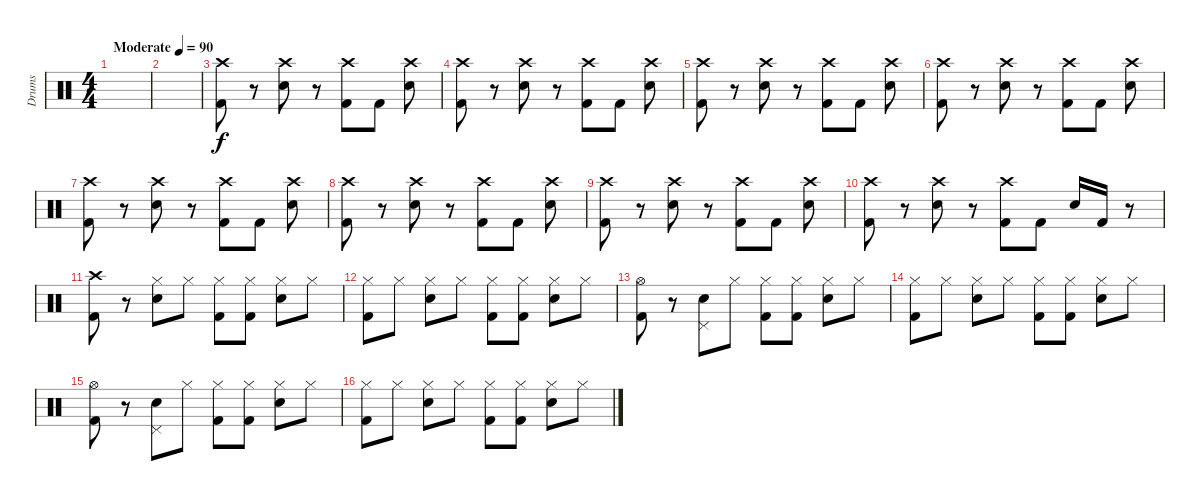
\track ("Drums" "Drums") {instrument percussion}
\staff {score}
\articulation defaults
\ts (4 4)
\tempo (90 "Moderate")
\clef neutral
\ks c
|
|
("Crash high (hit)" "Kick (hit) 2").8 r.8 ("Crash high (hit)" "Electric Snare (hit)").8 r.8 ("Crash high (hit)" "Kick (hit) 2").8 "Kick (hit) 2".8 ("Crash high (hit)" "Electric Snare (hit)").8 |
("Crash high (hit)" "Kick (hit) 2").8 r.8 ("Crash high (hit)" "Electric Snare (hit)").8 r.8 ("Crash high (hit)" "Kick (hit) 2").8 "Kick (hit) 2".8 ("Crash high (hit)" "Electric Snare (hit)").8 |
("Crash high (hit)" "Kick (hit) 2").8 r.8 ("Crash high (hit)" "Electric Snare (hit)").8 r.8 ("Crash high (hit)" "Kick (hit) 2").8 "Kick (hit) 2".8 ("Crash high (hit)" "Electric Snare (hit)").8 |
("Crash high (hit)" "Kick (hit) 2").8 r.8 ("Crash high (hit)" "Electric Snare (hit)").8 r.8 ("Crash high (hit)" "Kick (hit) 2").8 "Kick (hit) 2".8 ("Crash high (hit)" "Electric Snare (hit)").8 |
("Crash high (hit)" "Kick (hit) 2").8 r.8 ("Crash high (hit)" "Electric Snare (hit)").8 r.8 ("Crash high (hit)" "Kick (hit) 2").8 "Kick (hit) 2".8 ("Crash high (hit)" "Electric Snare (hit)").8 |
("Crash high (hit)" "Kick (hit) 2").8 r.8 ("Crash high (hit)" "Electric Snare (hit)").8 r.8 ("Crash high (hit)" "Kick (hit) 2").8 "Kick (hit) 2".8 ("Crash high (hit)" "Electric Snare (hit)").8 |
("Crash high (hit)" "Kick (hit) 2").8 r.8 ("Crash high (hit)" "Electric Snare (hit)").8 r.8 ("Crash high (hit)" "Kick (hit) 2").8 "Kick (hit) 2".8 ("Crash high (hit)" "Electric Snare (hit)").8 |
("Crash high (hit)" "Kick (hit) 2").8 r.8 ("Crash high (hit)" "Electric Snare (hit)").8 r.8 ("Crash high (hit)" "Kick (hit) 2").8 "Kick (hit) 2".8 "Electric Snare (hit)".16 "Kick (hit) 2".16 r.8 |
("Crash high (hit)" "Kick (hit) 2").8 r.8 ("Hi-Hat (closed)" "Electric Snare (hit)").8 "Hi-Hat (closed)".8 ("Hi-Hat (closed)" "Kick (hit) 2").8 ("Hi-Hat (closed)" "Kick (hit) 2").8 ("Hi-Hat (closed)" "Electric Snare (hit)").8 "Hi-Hat (closed)".8 |
("Hi-Hat (closed)" "Kick (hit) 2").8 "Hi-Hat (closed)".8 ("Hi-Hat (closed)" "Electric Snare (hit)").8 "Hi-Hat (closed)".8 ("Hi-Hat (closed)" "Kick (hit) 2").8 ("Hi-Hat (closed)" "Kick (hit) 2").8 ("Hi-Hat (closed)" "Electric Snare (hit)").8 "Hi-Hat (closed)".8 |
("Hi-Hat (open)" "Kick (hit) 2").8 r.8 ("Pedal Hi-Hat (hit)" "Electric Snare (hit)").8 "Hi-Hat (closed)".8 ("Hi-Hat (closed)" "Kick (hit) 2").8 ("Hi-Hat (closed)" "Kick (hit) 2").8 ("Hi-Hat (closed)" "Electric Snare (hit)").8 "Hi-Hat (closed)".8 |
("Hi-Hat (closed)" "Kick (hit) 2").8 "Hi-Hat (closed)".8 ("Hi-Hat (closed)" "Electric Snare (hit)").8 "Hi-Hat (closed)".8 ("Hi-Hat (closed)" "Kick (hit) 2").8 ("Hi-Hat (closed)" "Kick (hit) 2").8 ("Hi-Hat (closed)" "Electric Snare (hit)").8 "Hi-Hat (closed)".8 |
("Hi-Hat (open)" "Kick (hit) 2").8 r.8 ("Pedal Hi-Hat (hit)" "Electric Snare (hit)").8 "Hi-Hat (closed)".8 ("Hi-Hat (closed)" "Kick (hit) 2").8 ("Hi-Hat (closed)" "Kick (hit) 2").8 ("Hi-Hat (closed)" "Electric Snare (hit)").8 "Hi-Hat (closed)".8 |
("Hi-Hat (closed)" "Kick (hit) 2").8 "Hi-Hat (closed)".8 ("Hi-Hat (closed)" "Electric Snare (hit)").8 "Hi-Hat (closed)".8 ("Hi-Hat (closed)" "Kick (hit) 2").8 ("Hi-Hat (closed)" "Kick (hit) 2").8 ("Hi-Hat (closed)" "Electric Snare (hit)").8 "Hi-Hat (closed)".8
